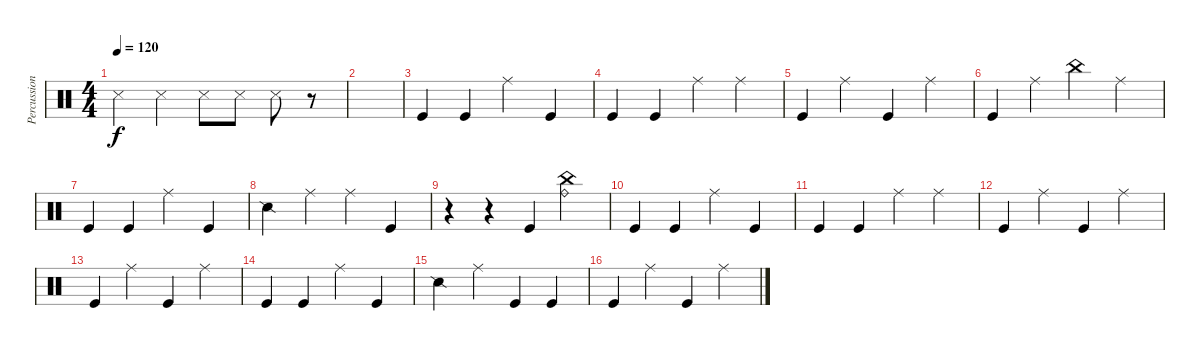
\track ("Percussion" "Percussion") {instrument percussion}
\staff {score}
\articulation defaults
\ts (4 4)
\tempo 120
\clef neutral
\ks c "Snare (side stick) 3".4{dy f} "Snare (side stick) 3".4 "Snare (side stick) 3".8 "Snare (side stick) 3".8 "Snare (side stick) 3".8
r.8 |
|
"Kick (hit)".4 "Kick (hit)".4 "Ride (middle)".4 "Kick (hit)".4 |
"Kick (hit)".4 "Kick (hit)".4 "Ride (middle)".4 "Ride (middle)".4 |
"Kick (hit)".4 "Ride (middle)".4 "Kick (hit)".4 "Ride (middle)".4 |
"Kick (hit)".4 "Ride (middle)".4 "China (hit)".4 "Ride (middle)".4 |
"Kick (hit)".4 "Kick (hit)".4 "Ride (middle)".4 "Kick (hit)".4 |
"Snare (side stick) 2".4 "Ride (middle)".4 "Ride (middle)".4 "Kick (hit)".4 |
r.4 r.4 "Kick (hit)".4 ("China (hit)" "Ride (bell)").4{volume 16} |
"Kick (hit)".4 "Kick (hit)".4 "Ride (middle)".4 "Kick (hit)".4 |
"Kick (hit)".4 "Kick (hit)".4 "Ride (middle)".4 "Ride (middle)".4 |
"Kick (hit)".4 "Ride (middle)".4 "Kick (hit)".4 "Ride (middle)".4 |
"Kick (hit)".4 "Ride (middle)".4 "Kick (hit)".4 "Ride (middle)".4 |
"Kick (hit)".4 "Kick (hit)".4 "Ride (middle)".4 "Kick (hit)".4 |
"Snare (side stick) 2".4 "Ride (middle)".4 "Kick (hit)".4 "Kick (hit)".4 |
"Kick (hit)".4 "Ride (middle)".4 "Kick (hit)".4 "Ride (middle)".4
